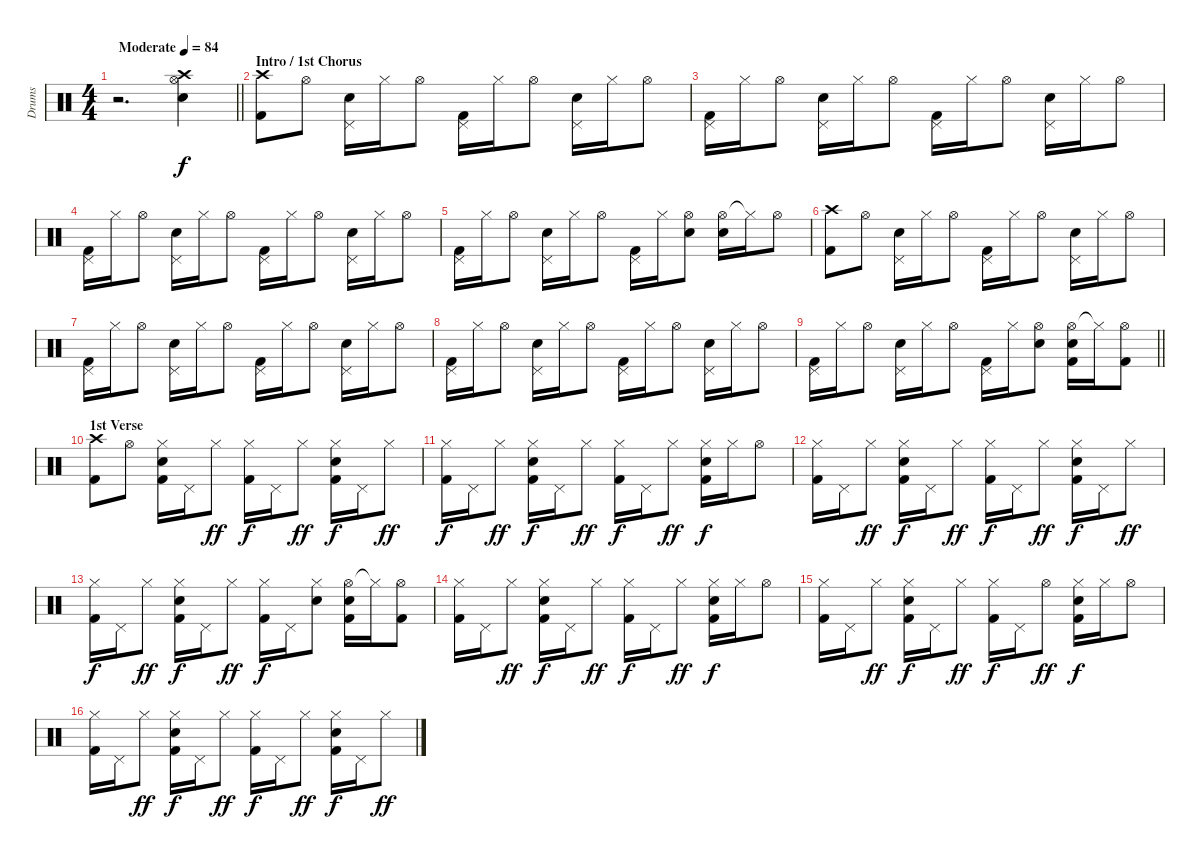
\track ("Drums" "Drums") {instrument percussion}
\staff {score}
\articulation defaults
\ts (4 4)
\tempo (84 "Moderate")
\clef neutral
\barLineRight lightlight
\ks c
r.2{d dy f} ("Crash high (hit)" "Hi-Hat (open)" "Electric Snare (hit)").4 |
\section ("" "Intro / 1st Chorus")
("Crash high (hit)" "Kick (hit) 2").8 "Hi-Hat (open)".8 ("Pedal Hi-Hat (hit)" "Electric Snare (hit)").16 "Hi-Hat (closed)".16 "Hi-Hat (open)".8 ("Pedal Hi-Hat (hit)" "Kick (hit) 2").16 "Hi-Hat (closed)".16 "Hi-Hat (open)".8 ("Pedal Hi-Hat (hit)" "Electric Snare (hit)").16 "Hi-Hat (closed)".16 "Hi-Hat (open)".8 |
("Pedal Hi-Hat (hit)" "Kick (hit) 2").16 "Hi-Hat (closed)".16 "Hi-Hat (open)".8 ("Pedal Hi-Hat (hit)" "Electric Snare (hit)").16 "Hi-Hat (closed)".16 "Hi-Hat (open)".8 ("Pedal Hi-Hat (hit)" "Kick (hit) 2").16 "Hi-Hat (closed)".16 "Hi-Hat (open)".8 ("Pedal Hi-Hat (hit)" "Electric Snare (hit)").16 "Hi-Hat (closed)".16 "Hi-Hat (open)".8 |
("Pedal Hi-Hat (hit)" "Kick (hit) 2").16 "Hi-Hat (closed)".16 "Hi-Hat (open)".8 ("Pedal Hi-Hat (hit)" "Electric Snare (hit)").16 "Hi-Hat (closed)".16 "Hi-Hat (open)".8 ("Pedal Hi-Hat (hit)" "Kick (hit) 2").16 "Hi-Hat (closed)".16 "Hi-Hat (open)".8 ("Pedal Hi-Hat (hit)" "Electric Snare (hit)").16 "Hi-Hat (closed)".16 "Hi-Hat (open)".8 |
("Pedal Hi-Hat (hit)" "Kick (hit) 2").16 "Hi-Hat (closed)".16 "Hi-Hat (open)".8 ("Pedal Hi-Hat (hit)" "Electric Snare (hit)").16 "Hi-Hat (closed)".16 "Hi-Hat (open)".8 ("Pedal Hi-Hat (hit)" "Kick (hit) 2").16 "Hi-Hat (closed)".16 ("Hi-Hat (open)" "Electric Snare (hit)").8 ("Hi-Hat (open)" "Electric Snare (hit)").16 "Hi-Hat (closed)"{t}.16 "Hi-Hat (open)".8 |
("Crash high (hit)" "Kick (hit) 2").8 "Hi-Hat (open)".8 ("Pedal Hi-Hat (hit)" "Electric Snare (hit)").16 "Hi-Hat (closed)".16 "Hi-Hat (open)".8 ("Pedal Hi-Hat (hit)" "Kick (hit) 2").16 "Hi-Hat (closed)".16 "Hi-Hat (open)".8 ("Pedal Hi-Hat (hit)" "Electric Snare (hit)").16 "Hi-Hat (closed)".16 "Hi-Hat (open)".8 |
("Pedal Hi-Hat (hit)" "Kick (hit) 2").16 "Hi-Hat (closed)".16 "Hi-Hat (open)".8 ("Pedal Hi-Hat (hit)" "Electric Snare (hit)").16 "Hi-Hat (closed)".16 "Hi-Hat (open)".8 ("Pedal Hi-Hat (hit)" "Kick (hit) 2").16 "Hi-Hat (closed)".16 "Hi-Hat (open)".8 ("Pedal Hi-Hat (hit)" "Electric Snare (hit)").16 "Hi-Hat (closed)".16 "Hi-Hat (open)".8 |
("Pedal Hi-Hat (hit)" "Kick (hit) 2").16 "Hi-Hat (closed)".16 "Hi-Hat (open)".8 ("Pedal Hi-Hat (hit)" "Electric Snare (hit)").16 "Hi-Hat (closed)".16 "Hi-Hat (open)".8 ("Pedal Hi-Hat (hit)" "Kick (hit) 2").16 "Hi-Hat (closed)".16 "Hi-Hat (open)".8 ("Pedal Hi-Hat (hit)" "Electric Snare (hit)").16 "Hi-Hat (closed)".16 "Hi-Hat (open)".8 |
\barLineRight lightlight
("Pedal Hi-Hat (hit)" "Kick (hit) 2").16 "Hi-Hat (closed)".16 "Hi-Hat (open)".8 ("Pedal Hi-Hat (hit)" "Electric Snare (hit)").16 "Hi-Hat (closed)".16 "Hi-Hat (open)".8 ("Pedal Hi-Hat (hit)" "Kick (hit) 2").16 "Hi-Hat (closed)".16 ("Hi-Hat (open)" "Electric Snare (hit)").8 ("Hi-Hat (open)" "Electric Snare (hit)" "Kick (hit) 2").16 "Hi-Hat (closed)"{t}.16 ("Hi-Hat (open)" "Kick (hit) 2").8 |
\section ("" "1st Verse")
("Crash high (hit)" "Kick (hit) 2").8 "Hi-Hat (open)".8 ("Hi-Hat (closed)" "Electric Snare (hit)" "Kick (hit) 2").16 "Pedal Hi-Hat (hit)".16 "Hi-Hat (closed)".8{dy ff} ("Hi-Hat (closed)" "Kick (hit) 2").16{dy f} "Pedal Hi-Hat (hit)".16 "Hi-Hat (closed)".8{dy ff} ("Hi-Hat (closed)" "Electric Snare (hit)" "Kick (hit) 2").16{dy f} "Pedal Hi-Hat (hit)".16 "Hi-Hat (closed)".8{dy ff} |
("Hi-Hat (closed)" "Kick (hit) 2").16{dy f} "Pedal Hi-Hat (hit)".16 "Hi-Hat (closed)".8{dy ff} ("Hi-Hat (closed)" "Electric Snare (hit)" "Kick (hit) 2").16{dy f} "Pedal Hi-Hat (hit)".16 "Hi-Hat (closed)".8{dy ff} ("Hi-Hat (closed)" "Kick (hit) 2").16{dy f} "Pedal Hi-Hat (hit)".16 "Hi-Hat (closed)".8{dy ff} ("Hi-Hat (closed)" "Electric Snare (hit)" "Kick (hit) 2").16{dy f} "Hi-Hat (closed)".16 "Hi-Hat (open)".8 |
("Hi-Hat (closed)" "Kick (hit) 2").16 "Pedal Hi-Hat (hit)".16 "Hi-Hat (closed)".8{dy ff} ("Hi-Hat (closed)" "Electric Snare (hit)" "Kick (hit) 2").16{dy f} "Pedal Hi-Hat (hit)".16 "Hi-Hat (closed)".8{dy ff} ("Hi-Hat (closed)" "Kick (hit) 2").16{dy f} "Pedal Hi-Hat (hit)".16 "Hi-Hat (closed)".8{dy ff} ("Hi-Hat (closed)" "Electric Snare (hit)" "Kick (hit) 2").16{dy f} "Pedal Hi-Hat (hit)".16 "Hi-Hat (closed)".8{dy ff} |
("Hi-Hat (closed)" "Kick (hit) 2").16{dy f} "Pedal Hi-Hat (hit)".16 "Hi-Hat (closed)".8{dy ff} ("Hi-Hat (closed)" "Electric Snare (hit)" "Kick (hit) 2").16{dy f} "Pedal Hi-Hat (hit)".16 "Hi-Hat (closed)".8{dy ff} ("Hi-Hat (closed)" "Kick (hit) 2").16{dy f} "Pedal Hi-Hat (hit)".16 ("Hi-Hat (closed)" "Electric Snare (hit)").8 ("Hi-Hat (open)" "Electric Snare (hit)" "Kick (hit) 2").16 "Hi-Hat (closed)"{t}.16 ("Hi-Hat (open)" "Kick (hit) 2").8 |
("Hi-Hat (closed)" "Kick (hit) 2").16 "Pedal Hi-Hat (hit)".16 "Hi-Hat (closed)".8{dy ff} ("Hi-Hat (closed)" "Electric Snare (hit)" "Kick (hit) 2").16{dy f} "Pedal Hi-Hat (hit)".16 "Hi-Hat (closed)".8{dy ff} ("Hi-Hat (closed)" "Kick (hit) 2").16{dy f} "Pedal Hi-Hat (hit)".16 "Hi-Hat (closed)".8{dy ff} ("Hi-Hat (closed)" "Electric Snare (hit)" "Kick (hit) 2").16{dy f} "Hi-Hat (closed)".16 "Hi-Hat (open)".8 |
("Hi-Hat (closed)" "Kick (hit) 2").16 "Pedal Hi-Hat (hit)".16 "Hi-Hat (closed)".8{dy ff} ("Hi-Hat (closed)" "Electric Snare (hit)" "Kick (hit) 2").16{dy f} "Pedal Hi-Hat (hit)".16 "Hi-Hat (closed)".8{dy ff} ("Hi-Hat (closed)" "Kick (hit) 2").16{dy f} "Pedal Hi-Hat (hit)".16 "Hi-Hat (open)".8{dy ff} ("Hi-Hat (closed)" "Electric Snare (hit)" "Kick (hit) 2").16{dy f} "Hi-Hat (closed)".16 "Hi-Hat (open)".8 |
("Hi-Hat (closed)" "Kick (hit) 2").16 "Pedal Hi-Hat (hit)".16 "Hi-Hat (closed)".8{dy ff} ("Hi-Hat (closed)" "Electric Snare (hit)" "Kick (hit) 2").16{dy f} "Pedal Hi-Hat (hit)".16 "Hi-Hat (closed)".8{dy ff} ("Hi-Hat (closed)" "Kick (hit) 2").16{dy f} "Pedal Hi-Hat (hit)".16 "Hi-Hat (closed)".8{dy ff} ("Hi-Hat (closed)" "Electric Snare (hit)" "Kick (hit) 2").16{dy f} "Pedal Hi-Hat (hit)".16 "Hi-Hat (closed)".8{dy ff}
